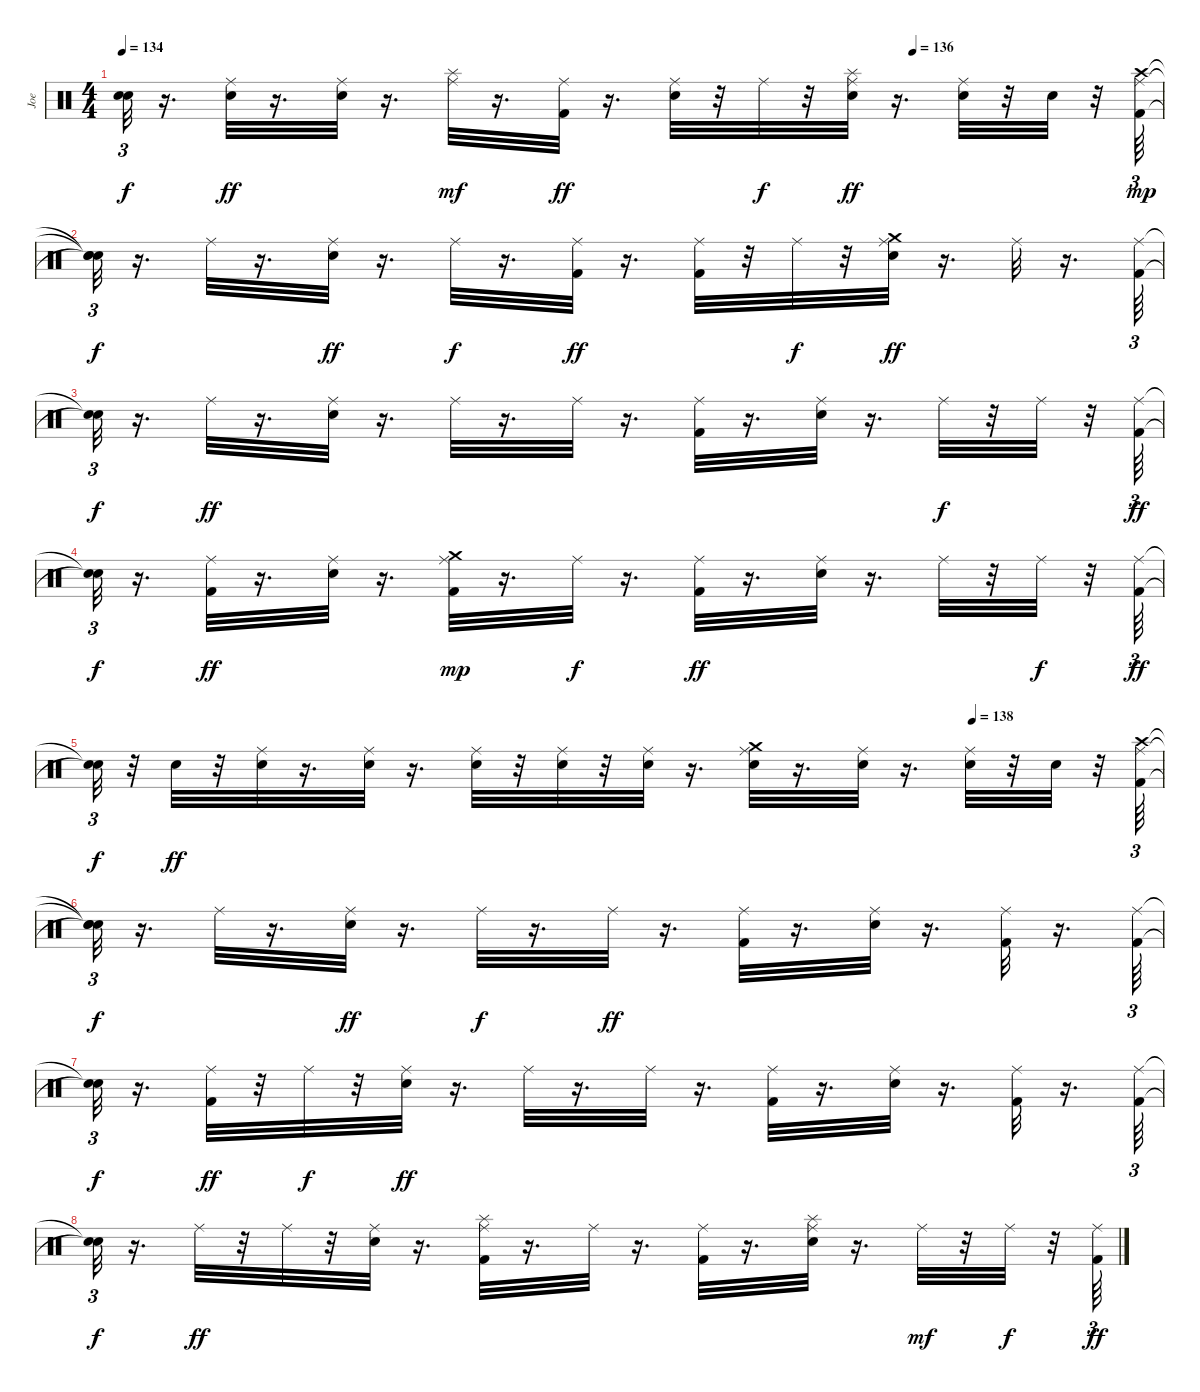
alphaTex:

\track ("Joe" "Joe") {instrument percussion}
\staff {score}
\articulation defaults
\ts (4 4)
\tempo 134
\tempo (136 0.7604166666666666)
\clef neutral
\ks c
("Snare (hit)"{t} "Snare (hit)"{t}).32{tu (3 2) dy f} r.16{d} ("Ride (middle)" "Electric Snare (hit)").32{dy ff} r.16{d} ("Ride (middle)" "Electric Snare (hit)").32 r.16{d} ("Splash (hit)" "Ride (middle)").32{dy mf} r.16{d} ("Ride (middle)" "Kick (hit) 2").32{dy ff} r.16{d} ("Ride (middle)" "Electric Snare (hit)").32 r.32 "Ride (middle)".32{dy f} r.32 ("Splash (hit)" "Electric Snare (hit)" "Ride (middle)").32{dy ff} r.16{d} ("Electric Snare (hit)" "Ride (middle)").32 r.32 "Electric Snare (hit)".32 r.32 ("Kick (hit) 2" "Ride (middle)" "Crash high (hit)").64{tu (3 2) dy mp} |
("Snare (hit)"{t} "Snare (hit)"{t} "Snare (hit)"{t}).32{tu (3 2) dy f} r.16{d} "Ride (middle)".32 r.16{d} ("Ride (middle)" "Electric Snare (hit)").32{dy ff} r.16{d} "Ride (middle)".32{dy f} r.16{d} ("Kick (hit) 2" "Ride (middle)").32{dy ff} r.16{d} ("Kick (hit) 2" "Ride (middle)").32 r.32 "Ride (middle)".32{dy f} r.32 ("Crash medium (hit)" "Electric Snare (hit)" "Ride (middle)").32{dy ff} r.16{d} "Ride (middle)".32 r.16{d} ("Ride (middle)" "Kick (hit) 2").64{tu (3 2)} |
("Snare (hit)"{t} "Snare (hit)"{t}).32{tu (3 2) dy f} r.16{d} "Ride (middle)".32{dy ff} r.16{d} ("Ride (middle)" "Electric Snare (hit)").32 r.16{d} "Ride (middle)".32 r.16{d} "Ride (middle)".32 r.16{d} ("Ride (middle)" "Kick (hit) 2").32 r.16{d} ("Electric Snare (hit)" "Ride (middle)").32 r.16{d} "Ride (middle)".32{dy f} r.32 "Ride (middle)".32 r.32 ("Ride (middle)" "Kick (hit) 2").64{tu (3 2) dy ff} |
("Snare (hit)"{t} "Snare (hit)"{t}).32{tu (3 2) dy f} r.16{d} ("Ride (middle)" "Kick (hit) 2").32{dy ff} r.16{d} ("Ride (middle)" "Electric Snare (hit)").32 r.16{d} ("Ride (middle)" "Kick (hit) 2" "Crash medium (hit)").32{dy mp} r.16{d} "Ride (middle)".32{dy f} r.16{d} ("Ride (middle)" "Kick (hit) 2").32{dy ff} r.16{d} ("Ride (middle)" "Electric Snare (hit)").32 r.16{d} "Ride (middle)".32 r.32 "Ride (middle)".32{dy f} r.32 ("Ride (middle)" "Kick (hit) 2").64{tu (3 2) dy ff} |
\tempo (138 0.8229166666666666)
("Snare (hit)"{t} "Snare (hit)"{t}).32{tu (3 2) dy f} r.32 "Electric Snare (hit)".32{dy ff} r.32 ("Ride (middle)" "Electric Snare (hit)").32 r.16{d} ("Ride (middle)" "Electric Snare (hit)").32 r.16{d} ("Ride (middle)" "Electric Snare (hit)").32 r.32 ("Electric Snare (hit)" "Ride (middle)").32 r.32 ("Electric Snare (hit)" "Ride (middle)").32 r.16{d} ("Ride (middle)" "Crash medium (hit)" "Electric Snare (hit)").32 r.16{d} ("Ride (middle)" "Electric Snare (hit)").32 r.16{d} ("Electric Snare (hit)" "Ride (middle)").32 r.32 "Electric Snare (hit)".32 r.32 ("Crash high (hit)" "Kick (hit) 2" "Ride (middle)").64{tu (3 2)} |
("Snare (hit)"{t} "Snare (hit)"{t} "Snare (hit)"{t}).32{tu (3 2) dy f} r.16{d} "Ride (middle)".32 r.16{d} ("Electric Snare (hit)" "Ride (middle)").32{dy ff} r.16{d} "Ride (middle)".32{dy f} r.16{d} "Ride (middle)".32{dy ff} r.16{d} ("Kick (hit) 2" "Ride (middle)").32 r.16{d} ("Electric Snare (hit)" "Ride (middle)").32 r.16{d} ("Kick (hit) 2" "Ride (middle)").32 r.16{d} ("Ride (middle)" "Kick (hit) 2").64{tu (3 2)} |
("Snare (hit)"{t} "Snare (hit)"{t}).32{tu (3 2) dy f} r.16{d} ("Ride (middle)" "Kick (hit) 2").32{dy ff} r.32 "Ride (middle)".32{dy f} r.32 ("Electric Snare (hit)" "Ride (middle)").32{dy ff} r.16{d} "Ride (middle)".32 r.16{d} "Ride (middle)".32 r.16{d} ("Ride (middle)" "Kick (hit) 2").32 r.16{d} ("Ride (middle)" "Electric Snare (hit)").32 r.16{d} ("Ride (middle)" "Kick (hit) 2").32 r.16{d} ("Kick (hit) 2" "Ride (middle)").64{tu (3 2)} |
("Snare (hit)"{t} "Snare (hit)"{t}).32{tu (3 2) dy f} r.16{d} "Ride (middle)".32{dy ff} r.32 "Ride (middle)".32 r.32 ("Ride (middle)" "Electric Snare (hit)").32 r.16{d} ("Ride (middle)" "Kick (hit) 2" "Splash (hit)").32 r.16{d} "Ride (middle)".32 r.16{d} ("Ride (middle)" "Kick (hit) 2").32 r.16{d} ("Splash (hit)" "Ride (middle)" "Electric Snare (hit)").32 r.16{d} "Ride (middle)".32{dy mf} r.32 "Ride (middle)".32{dy f} r.32 ("Kick (hit) 2" "Ride (middle)").64{tu (3 2) dy ff}
